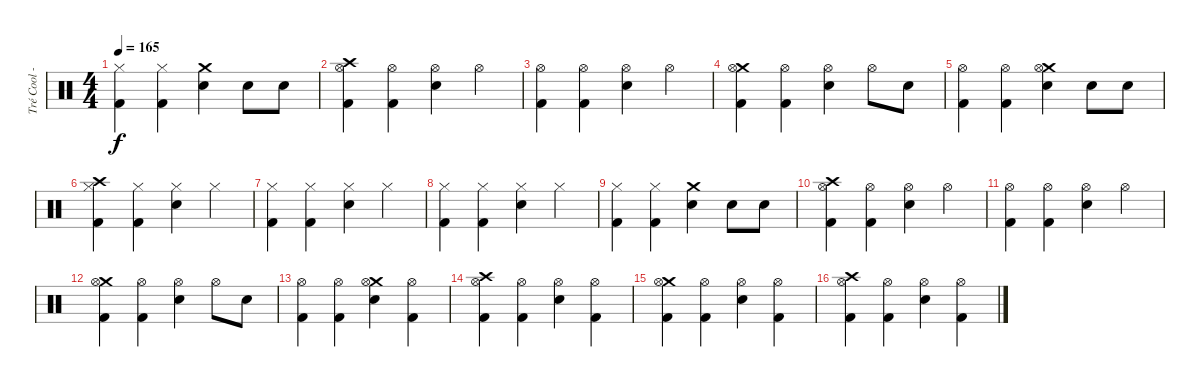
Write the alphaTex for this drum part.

\track ("Tré Cool - Drums" "Tré Cool -") {instrument percussion}
\staff {score}
\articulation defaults
\ts (4 4)
\tempo 165
\clef neutral
\ks c
("Hi-Hat (closed)" "Kick (hit) 2").4{dy f} ("Hi-Hat (closed)" "Kick (hit) 2").4 ("Crash medium (hit)" "Electric Snare (hit)").4 "Electric Snare (hit)".8 "Electric Snare (hit)".8 |
("Crash high (hit)" "Hi-Hat (open)" "Kick (hit) 2").4 ("Hi-Hat (open)" "Kick (hit) 2").4 ("Hi-Hat (open)" "Electric Snare (hit)").4 "Hi-Hat (open)".4 |
("Hi-Hat (open)" "Kick (hit) 2").4 ("Hi-Hat (open)" "Kick (hit) 2").4 ("Hi-Hat (open)" "Electric Snare (hit)").4 "Hi-Hat (open)".4 |
("Crash medium (hit)" "Hi-Hat (open)" "Kick (hit) 2").4 ("Hi-Hat (open)" "Kick (hit) 2").4 ("Hi-Hat (open)" "Electric Snare (hit)").4 "Hi-Hat (open)".8 "Electric Snare (hit)".8 |
("Hi-Hat (open)" "Kick (hit) 2").4 ("Hi-Hat (open)" "Kick (hit) 2").4 ("Crash medium (hit)" "Hi-Hat (open)" "Electric Snare (hit)").4 "Electric Snare (hit)".8 "Electric Snare (hit)".8 |
("Crash high (hit)" "Hi-Hat (closed)" "Kick (hit) 2").4 ("Hi-Hat (closed)" "Kick (hit) 2").4 ("Hi-Hat (closed)" "Electric Snare (hit)").4 "Hi-Hat (closed)".4 |
("Hi-Hat (closed)" "Kick (hit) 2").4 ("Hi-Hat (closed)" "Kick (hit) 2").4 ("Hi-Hat (closed)" "Electric Snare (hit)").4 "Hi-Hat (closed)".4 |
("Hi-Hat (closed)" "Kick (hit) 2").4 ("Hi-Hat (closed)" "Kick (hit) 2").4 ("Hi-Hat (closed)" "Electric Snare (hit)").4 "Hi-Hat (closed)".4 |
("Hi-Hat (closed)" "Kick (hit) 2").4 ("Hi-Hat (closed)" "Kick (hit) 2").4 ("Crash medium (hit)" "Electric Snare (hit)").4 "Electric Snare (hit)".8 "Electric Snare (hit)".8 |
("Crash high (hit)" "Hi-Hat (open)" "Kick (hit) 2").4 ("Hi-Hat (open)" "Kick (hit) 2").4 ("Hi-Hat (open)" "Electric Snare (hit)").4 "Hi-Hat (open)".4 |
("Hi-Hat (open)" "Kick (hit) 2").4 ("Hi-Hat (open)" "Kick (hit) 2").4 ("Hi-Hat (open)" "Electric Snare (hit)").4 "Hi-Hat (open)".4 |
("Crash medium (hit)" "Hi-Hat (open)" "Kick (hit) 2").4 ("Hi-Hat (open)" "Kick (hit) 2").4 ("Hi-Hat (open)" "Electric Snare (hit)").4 "Hi-Hat (open)".8 "Electric Snare (hit)".8 |
("Hi-Hat (open)" "Kick (hit) 2").4 ("Hi-Hat (open)" "Kick (hit) 2").4 ("Crash medium (hit)" "Hi-Hat (open)" "Electric Snare (hit)").4 ("Hi-Hat (open)" "Kick (hit) 2").4 |
("Crash high (hit)" "Hi-Hat (open)" "Kick (hit) 2").4 ("Hi-Hat (open)" "Kick (hit) 2").4 ("Hi-Hat (open)" "Electric Snare (hit)").4 ("Hi-Hat (open)" "Kick (hit) 2").4 |
("Crash medium (hit)" "Hi-Hat (open)" "Kick (hit) 2").4 ("Hi-Hat (open)" "Kick (hit) 2").4 ("Hi-Hat (open)" "Electric Snare (hit)").4 ("Hi-Hat (open)" "Kick (hit) 2").4 |
("Crash high (hit)" "Hi-Hat (open)" "Kick (hit) 2").4 ("Hi-Hat (open)" "Kick (hit) 2").4 ("Hi-Hat (open)" "Electric Snare (hit)").4 ("Hi-Hat (open)" "Kick (hit) 2").4
